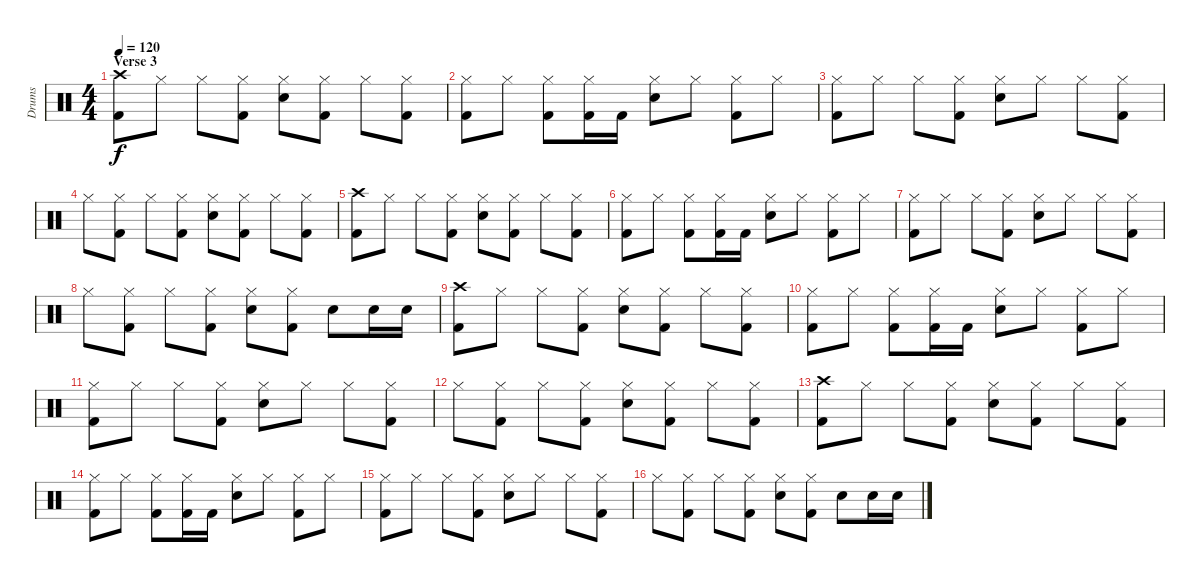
\track ("Drums" "Drums") {instrument percussion}
\staff {score}
\articulation defaults
\ts (4 4)
\section ("" "Verse 3")
\tempo 120
\clef neutral
\ks c
("Crash high (hit)" "Kick (hit) 2").8{dy f} "Hi-Hat (closed)".8 "Hi-Hat (closed)".8 ("Hi-Hat (closed)" "Kick (hit) 2").8 ("Hi-Hat (closed)" "Snare (hit) 2").8 ("Hi-Hat (closed)" "Kick (hit) 2").8 "Hi-Hat (closed)".8 ("Hi-Hat (closed)" "Kick (hit) 2").8 |
("Hi-Hat (closed)" "Kick (hit) 2").8 "Hi-Hat (closed)".8 ("Hi-Hat (closed)" "Kick (hit) 2").8 ("Hi-Hat (closed)" "Kick (hit) 2").16 "Kick (hit) 2".16 ("Hi-Hat (closed)" "Snare (hit) 2").8 "Hi-Hat (closed)".8 ("Hi-Hat (closed)" "Kick (hit) 2").8 "Hi-Hat (closed)".8 |
("Hi-Hat (closed)" "Kick (hit) 2").8 "Hi-Hat (closed)".8 "Hi-Hat (closed)".8 ("Hi-Hat (closed)" "Kick (hit) 2").8 ("Hi-Hat (closed)" "Snare (hit) 2").8 "Hi-Hat (closed)".8 "Hi-Hat (closed)".8 ("Hi-Hat (closed)" "Kick (hit) 2").8 |
"Hi-Hat (closed)".8 ("Hi-Hat (closed)" "Kick (hit) 2").8 "Hi-Hat (closed)".8 ("Hi-Hat (closed)" "Kick (hit) 2").8 ("Hi-Hat (closed)" "Snare (hit) 2").8 ("Hi-Hat (closed)" "Kick (hit) 2").8 "Hi-Hat (closed)".8 ("Hi-Hat (closed)" "Kick (hit) 2").8 |
("Crash high (hit)" "Kick (hit) 2").8 "Hi-Hat (closed)".8 "Hi-Hat (closed)".8 ("Hi-Hat (closed)" "Kick (hit) 2").8 ("Hi-Hat (closed)" "Snare (hit) 2").8 ("Hi-Hat (closed)" "Kick (hit) 2").8 "Hi-Hat (closed)".8 ("Hi-Hat (closed)" "Kick (hit) 2").8 |
("Hi-Hat (closed)" "Kick (hit) 2").8 "Hi-Hat (closed)".8 ("Hi-Hat (closed)" "Kick (hit) 2").8 ("Hi-Hat (closed)" "Kick (hit) 2").16 "Kick (hit) 2".16 ("Hi-Hat (closed)" "Snare (hit) 2").8 "Hi-Hat (closed)".8 ("Hi-Hat (closed)" "Kick (hit) 2").8 "Hi-Hat (closed)".8 |
("Hi-Hat (closed)" "Kick (hit) 2").8 "Hi-Hat (closed)".8 "Hi-Hat (closed)".8 ("Hi-Hat (closed)" "Kick (hit) 2").8 ("Hi-Hat (closed)" "Snare (hit) 2").8 "Hi-Hat (closed)".8 "Hi-Hat (closed)".8 ("Hi-Hat (closed)" "Kick (hit) 2").8 |
"Hi-Hat (closed)".8 ("Hi-Hat (closed)" "Kick (hit) 2").8 "Hi-Hat (closed)".8 ("Hi-Hat (closed)" "Kick (hit) 2").8 ("Hi-Hat (closed)" "Snare (hit) 2").8 ("Hi-Hat (closed)" "Kick (hit) 2").8 "Snare (hit) 2".8 "Snare (hit) 2".16 "Snare (hit) 2".16 |
("Crash high (hit)" "Kick (hit) 2").8 "Hi-Hat (closed)".8 "Hi-Hat (closed)".8 ("Hi-Hat (closed)" "Kick (hit) 2").8 ("Hi-Hat (closed)" "Snare (hit) 2").8 ("Hi-Hat (closed)" "Kick (hit) 2").8 "Hi-Hat (closed)".8 ("Hi-Hat (closed)" "Kick (hit) 2").8 |
("Hi-Hat (closed)" "Kick (hit) 2").8 "Hi-Hat (closed)".8 ("Hi-Hat (closed)" "Kick (hit) 2").8 ("Hi-Hat (closed)" "Kick (hit) 2").16 "Kick (hit) 2".16 ("Hi-Hat (closed)" "Snare (hit) 2").8 "Hi-Hat (closed)".8 ("Hi-Hat (closed)" "Kick (hit) 2").8 "Hi-Hat (closed)".8 |
("Hi-Hat (closed)" "Kick (hit) 2").8 "Hi-Hat (closed)".8 "Hi-Hat (closed)".8 ("Hi-Hat (closed)" "Kick (hit) 2").8 ("Hi-Hat (closed)" "Snare (hit) 2").8 "Hi-Hat (closed)".8 "Hi-Hat (closed)".8 ("Hi-Hat (closed)" "Kick (hit) 2").8 |
"Hi-Hat (closed)".8 ("Hi-Hat (closed)" "Kick (hit) 2").8 "Hi-Hat (closed)".8 ("Hi-Hat (closed)" "Kick (hit) 2").8 ("Hi-Hat (closed)" "Snare (hit) 2").8 ("Hi-Hat (closed)" "Kick (hit) 2").8 "Hi-Hat (closed)".8 ("Hi-Hat (closed)" "Kick (hit) 2").8 |
("Crash high (hit)" "Kick (hit) 2").8 "Hi-Hat (closed)".8 "Hi-Hat (closed)".8 ("Hi-Hat (closed)" "Kick (hit) 2").8 ("Hi-Hat (closed)" "Snare (hit) 2").8 ("Hi-Hat (closed)" "Kick (hit) 2").8 "Hi-Hat (closed)".8 ("Hi-Hat (closed)" "Kick (hit) 2").8 |
("Hi-Hat (closed)" "Kick (hit) 2").8 "Hi-Hat (closed)".8 ("Hi-Hat (closed)" "Kick (hit) 2").8 ("Hi-Hat (closed)" "Kick (hit) 2").16 "Kick (hit) 2".16 ("Hi-Hat (closed)" "Snare (hit) 2").8 "Hi-Hat (closed)".8 ("Hi-Hat (closed)" "Kick (hit) 2").8 "Hi-Hat (closed)".8 |
("Hi-Hat (closed)" "Kick (hit) 2").8 "Hi-Hat (closed)".8 "Hi-Hat (closed)".8 ("Hi-Hat (closed)" "Kick (hit) 2").8 ("Hi-Hat (closed)" "Snare (hit) 2").8 "Hi-Hat (closed)".8 "Hi-Hat (closed)".8 ("Hi-Hat (closed)" "Kick (hit) 2").8 |
"Hi-Hat (closed)".8 ("Hi-Hat (closed)" "Kick (hit) 2").8 "Hi-Hat (closed)".8 ("Hi-Hat (closed)" "Kick (hit) 2").8 ("Hi-Hat (closed)" "Snare (hit) 2").8 ("Hi-Hat (closed)" "Kick (hit) 2").8 "Snare (hit) 2".8 "Snare (hit) 2".16 "Snare (hit) 2".16
